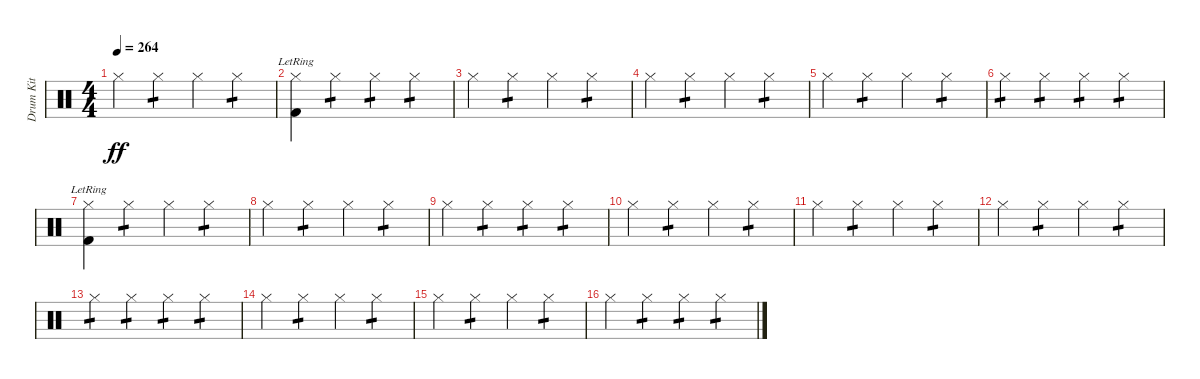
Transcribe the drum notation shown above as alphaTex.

\track ("Drum Kit" "Drum Kit") {instrument percussion}
\staff {score}
\articulation defaults
\ts (4 4)
\tempo 264
\clef neutral
\ks c "Hi-Hat (closed)".4{dy ff} "Hi-Hat (closed)".4{tp 1} "Hi-Hat (closed)".4 "Hi-Hat (closed)".4{tp 1}
|
("Hi-Hat (closed)" "Kick (hit) 2"{lr}).4 "Hi-Hat (closed)".4{tp 1} "Hi-Hat (closed)".4{tp 1} "Hi-Hat (closed)".4{tp 1} |
"Hi-Hat (closed)".4 "Hi-Hat (closed)".4{tp 1} "Hi-Hat (closed)".4 "Hi-Hat (closed)".4{tp 1} |
"Hi-Hat (closed)".4 "Hi-Hat (closed)".4{tp 1} "Hi-Hat (closed)".4 "Hi-Hat (closed)".4{tp 1} |
"Hi-Hat (closed)".4 "Hi-Hat (closed)".4{tp 1} "Hi-Hat (closed)".4 "Hi-Hat (closed)".4{tp 1} |
"Hi-Hat (closed)".4{tp 1} "Hi-Hat (closed)".4{tp 1} "Hi-Hat (closed)".4{tp 1} "Hi-Hat (closed)".4{tp 1} |
("Hi-Hat (closed)" "Kick (hit) 2"{lr}).4 "Hi-Hat (closed)".4{tp 1} "Hi-Hat (closed)".4 "Hi-Hat (closed)".4{tp 1} |
"Hi-Hat (closed)".4 "Hi-Hat (closed)".4{tp 1} "Hi-Hat (closed)".4 "Hi-Hat (closed)".4{tp 1} |
"Hi-Hat (closed)".4 "Hi-Hat (closed)".4{tp 1} "Hi-Hat (closed)".4{tp 1} "Hi-Hat (closed)".4{tp 1} |
"Hi-Hat (closed)".4 "Hi-Hat (closed)".4{tp 1} "Hi-Hat (closed)".4 "Hi-Hat (closed)".4{tp 1} |
"Hi-Hat (closed)".4 "Hi-Hat (closed)".4{tp 1} "Hi-Hat (closed)".4 "Hi-Hat (closed)".4{tp 1} |
"Hi-Hat (closed)".4 "Hi-Hat (closed)".4{tp 1} "Hi-Hat (closed)".4 "Hi-Hat (closed)".4{tp 1} |
"Hi-Hat (closed)".4{tp 1} "Hi-Hat (closed)".4{tp 1} "Hi-Hat (closed)".4{tp 1} "Hi-Hat (closed)".4{tp 1} |
"Hi-Hat (closed)".4 "Hi-Hat (closed)".4{tp 1} "Hi-Hat (closed)".4 "Hi-Hat (closed)".4{tp 1} |
"Hi-Hat (closed)".4 "Hi-Hat (closed)".4{tp 1} "Hi-Hat (closed)".4 "Hi-Hat (closed)".4{tp 1} |
"Hi-Hat (closed)".4 "Hi-Hat (closed)".4{tp 1} "Hi-Hat (closed)".4{tp 1} "Hi-Hat (closed)".4{tp 1}
